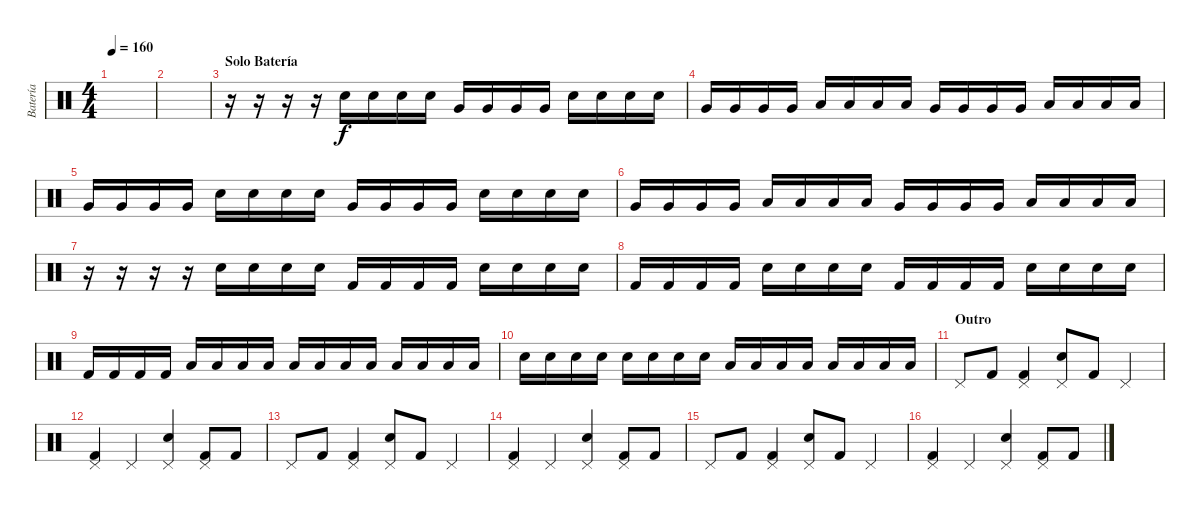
\track ("Batería" "Batería") {instrument percussion}
\staff {score}
\articulation defaults
\ts (4 4)
\tempo 160
\clef neutral
\ks c
|
|
\section ("" "Solo Batería")
r.16 r.16 r.16 r.16 "Electric Snare (hit)".16 "Electric Snare (hit)".16 "Electric Snare (hit)".16 "Electric Snare (hit)".16 "Very Low Tom (hit)".16 "Very Low Tom (hit)".16 "Very Low Tom (hit)".16 "Very Low Tom (hit)".16 "Electric Snare (hit)".16 "Electric Snare (hit)".16 "Electric Snare (hit)".16 "Electric Snare (hit)".16 |
"Very Low Tom (hit)".16 "Very Low Tom (hit)".16 "Very Low Tom (hit)".16 "Very Low Tom (hit)".16 "Low Tom (hit)".16 "Low Tom (hit)".16 "Low Tom (hit)".16 "Low Tom (hit)".16 "Very Low Tom (hit)".16 "Very Low Tom (hit)".16 "Very Low Tom (hit)".16 "Very Low Tom (hit)".16 "Low Tom (hit)".16 "Low Tom (hit)".16 "Low Tom (hit)".16 "Low Tom (hit)".16 |
"Very Low Tom (hit)".16 "Very Low Tom (hit)".16 "Very Low Tom (hit)".16 "Very Low Tom (hit)".16 "Electric Snare (hit)".16 "Electric Snare (hit)".16 "Electric Snare (hit)".16 "Electric Snare (hit)".16 "Very Low Tom (hit)".16 "Very Low Tom (hit)".16 "Very Low Tom (hit)".16 "Very Low Tom (hit)".16 "Electric Snare (hit)".16 "Electric Snare (hit)".16 "Electric Snare (hit)".16 "Electric Snare (hit)".16 |
"Very Low Tom (hit)".16 "Very Low Tom (hit)".16 "Very Low Tom (hit)".16 "Very Low Tom (hit)".16 "Low Tom (hit)".16 "Low Tom (hit)".16 "Low Tom (hit)".16 "Low Tom (hit)".16 "Very Low Tom (hit)".16 "Very Low Tom (hit)".16 "Very Low Tom (hit)".16 "Very Low Tom (hit)".16 "Low Tom (hit)".16 "Low Tom (hit)".16 "Low Tom (hit)".16 "Low Tom (hit)".16 |
r.16 r.16 r.16 r.16 "Electric Snare (hit)".16 "Electric Snare (hit)".16 "Electric Snare (hit)".16 "Electric Snare (hit)".16 "Kick (hit) 2".16 "Kick (hit) 2".16 "Kick (hit) 2".16 "Kick (hit) 2".16 "Electric Snare (hit)".16 "Electric Snare (hit)".16 "Electric Snare (hit)".16 "Electric Snare (hit)".16 |
"Kick (hit) 2".16 "Kick (hit) 2".16 "Kick (hit) 2".16 "Kick (hit) 2".16 "Electric Snare (hit)".16 "Electric Snare (hit)".16 "Electric Snare (hit)".16 "Electric Snare (hit)".16 "Kick (hit) 2".16 "Kick (hit) 2".16 "Kick (hit) 2".16 "Kick (hit) 2".16 "Electric Snare (hit)".16 "Electric Snare (hit)".16 "Electric Snare (hit)".16 "Electric Snare (hit)".16 |
"Kick (hit) 2".16 "Kick (hit) 2".16 "Kick (hit) 2".16 "Kick (hit) 2".16 "Low Tom (hit)".16 "Low Tom (hit)".16 "Low Tom (hit)".16 "Low Tom (hit)".16 "Low Floor Tom (hit)".16 "Low Floor Tom (hit)".16 "Low Floor Tom (hit)".16 "Low Floor Tom (hit)".16 "Low Tom (hit)".16 "Low Tom (hit)".16 "Low Tom (hit)".16 "Low Tom (hit)".16 |
"Electric Snare (hit)".16 "Electric Snare (hit)".16 "Electric Snare (hit)".16 "Electric Snare (hit)".16 "Electric Snare (hit)".16 "Electric Snare (hit)".16 "Electric Snare (hit)".16 "Electric Snare (hit)".16 "Low Tom (hit)".16 "Low Tom (hit)".16 "Low Tom (hit)".16 "Low Tom (hit)".16 "Low Floor Tom (hit)".16 "Low Floor Tom (hit)".16 "Low Floor Tom (hit)".16 "Low Floor Tom (hit)".16 |
\section ("" "Outro")
"Pedal Hi-Hat (hit)".8 "Kick (hit) 2".8 ("Kick (hit) 2" "Pedal Hi-Hat (hit)").4 ("Electric Snare (hit)" "Pedal Hi-Hat (hit)").8 "Kick (hit) 2".8 "Pedal Hi-Hat (hit)".4 |
("Kick (hit) 2" "Pedal Hi-Hat (hit)").4 "Pedal Hi-Hat (hit)".4 ("Electric Snare (hit)" "Pedal Hi-Hat (hit)").4 ("Kick (hit) 2" "Pedal Hi-Hat (hit)").8 "Kick (hit) 2".8 |
"Pedal Hi-Hat (hit)".8 "Kick (hit) 2".8 ("Kick (hit) 2" "Pedal Hi-Hat (hit)").4 ("Electric Snare (hit)" "Pedal Hi-Hat (hit)").8 "Kick (hit) 2".8 "Pedal Hi-Hat (hit)".4 |
("Kick (hit) 2" "Pedal Hi-Hat (hit)").4 "Pedal Hi-Hat (hit)".4 ("Electric Snare (hit)" "Pedal Hi-Hat (hit)").4 ("Kick (hit) 2" "Pedal Hi-Hat (hit)").8 "Kick (hit) 2".8 |
"Pedal Hi-Hat (hit)".8 "Kick (hit) 2".8 ("Kick (hit) 2" "Pedal Hi-Hat (hit)").4 ("Electric Snare (hit)" "Pedal Hi-Hat (hit)").8 "Kick (hit) 2".8 "Pedal Hi-Hat (hit)".4 |
("Kick (hit) 2" "Pedal Hi-Hat (hit)").4 "Pedal Hi-Hat (hit)".4 ("Electric Snare (hit)" "Pedal Hi-Hat (hit)").4 ("Kick (hit) 2" "Pedal Hi-Hat (hit)").8 "Kick (hit) 2".8
